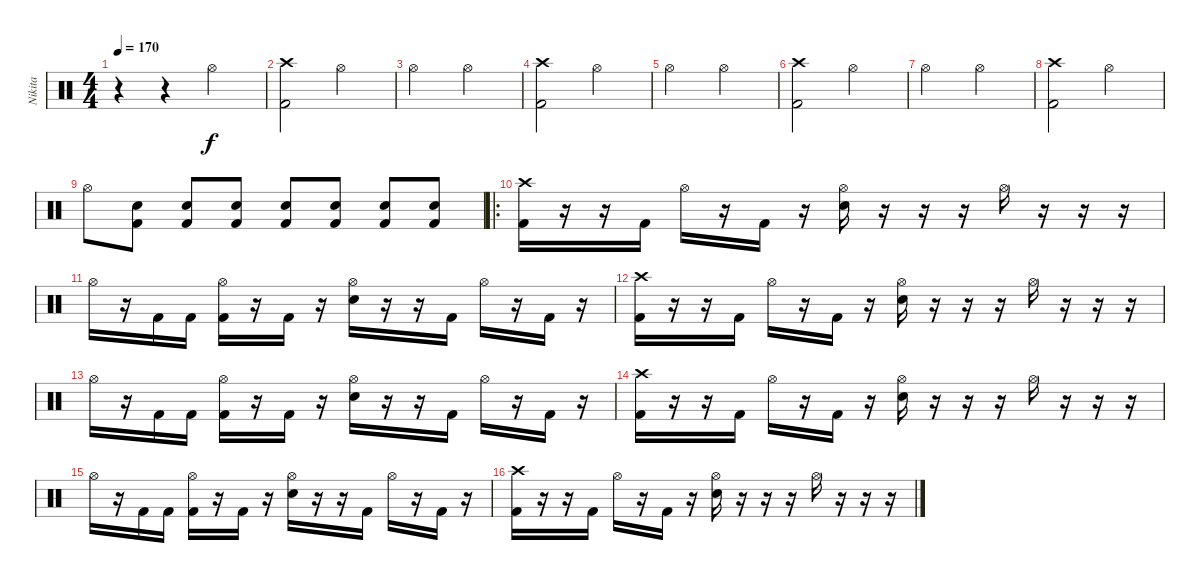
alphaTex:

\track ("Nikita" "Nikita") {instrument percussion}
\staff {score}
\articulation defaults
\ts (4 4)
\tempo 170
\clef neutral
\ks c
r.4{dy f} r.4 "Hi-Hat (open)".2 |
("Crash high (hit)" "Kick (hit) 2").2 "Hi-Hat (open)".2 |
"Hi-Hat (open)".2 "Hi-Hat (open)".2 |
("Crash high (hit)" "Kick (hit) 2").2 "Hi-Hat (open)".2 |
"Hi-Hat (open)".2 "Hi-Hat (open)".2 |
("Crash high (hit)" "Kick (hit) 2").2 "Hi-Hat (open)".2 |
"Hi-Hat (open)".2 "Hi-Hat (open)".2 |
("Crash high (hit)" "Kick (hit) 2").2 "Hi-Hat (open)".2 |
"Hi-Hat (open)".8 ("Electric Snare (hit)" "Kick (hit) 2").8 ("Electric Snare (hit)" "Kick (hit) 2").8 ("Electric Snare (hit)" "Kick (hit) 2").8 ("Electric Snare (hit)" "Kick (hit) 2").8 ("Electric Snare (hit)" "Kick (hit) 2").8 ("Electric Snare (hit)" "Kick (hit) 2").8 ("Electric Snare (hit)" "Kick (hit) 2").8 |
\ro
("Crash high (hit)" "Kick (hit) 2").16 r.16 r.16 "Kick (hit) 2".16 "Hi-Hat (open)".16 r.16 "Kick (hit) 2".16 r.16 ("Hi-Hat (open)" "Electric Snare (hit)").16 r.16 r.16 r.16 "Hi-Hat (open)".16 r.16 r.16 r.16 |
"Hi-Hat (open)".16 r.16 "Kick (hit) 2".16 "Kick (hit) 2".16 ("Hi-Hat (open)" "Kick (hit) 2").16 r.16 "Kick (hit) 2".16 r.16 ("Hi-Hat (open)" "Electric Snare (hit)").16 r.16 r.16 "Kick (hit) 2".16 "Hi-Hat (open)".16 r.16 "Kick (hit) 2".16 r.16 |
("Crash high (hit)" "Kick (hit) 2").16 r.16 r.16 "Kick (hit) 2".16 "Hi-Hat (open)".16 r.16 "Kick (hit) 2".16 r.16 ("Hi-Hat (open)" "Electric Snare (hit)").16 r.16 r.16 r.16 "Hi-Hat (open)".16 r.16 r.16 r.16 |
"Hi-Hat (open)".16 r.16 "Kick (hit) 2".16 "Kick (hit) 2".16 ("Hi-Hat (open)" "Kick (hit) 2").16 r.16 "Kick (hit) 2".16 r.16 ("Hi-Hat (open)" "Electric Snare (hit)").16 r.16 r.16 "Kick (hit) 2".16 "Hi-Hat (open)".16 r.16 "Kick (hit) 2".16 r.16 |
("Crash high (hit)" "Kick (hit) 2").16 r.16 r.16 "Kick (hit) 2".16 "Hi-Hat (open)".16 r.16 "Kick (hit) 2".16 r.16 ("Hi-Hat (open)" "Electric Snare (hit)").16 r.16 r.16 r.16 "Hi-Hat (open)".16 r.16 r.16 r.16 |
"Hi-Hat (open)".16 r.16 "Kick (hit) 2".16 "Kick (hit) 2".16 ("Hi-Hat (open)" "Kick (hit) 2").16 r.16 "Kick (hit) 2".16 r.16 ("Hi-Hat (open)" "Electric Snare (hit)").16 r.16 r.16 "Kick (hit) 2".16 "Hi-Hat (open)".16 r.16 "Kick (hit) 2".16 r.16 |
("Crash high (hit)" "Kick (hit) 2").16 r.16 r.16 "Kick (hit) 2".16 "Hi-Hat (open)".16 r.16 "Kick (hit) 2".16 r.16 ("Hi-Hat (open)" "Electric Snare (hit)").16 r.16 r.16 r.16 "Hi-Hat (open)".16 r.16 r.16 r.16
